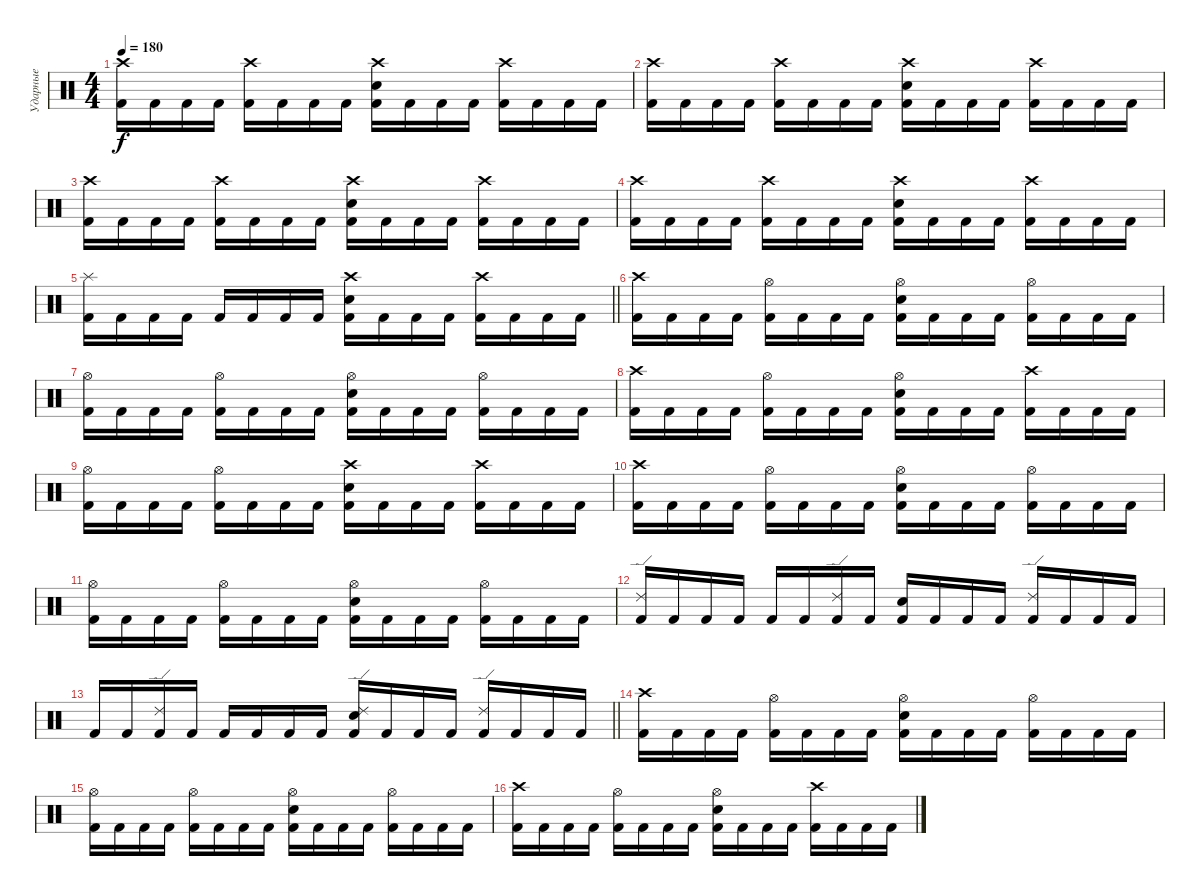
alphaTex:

\track ("Ударные" "Ударные") {instrument percussion}
\staff {score}
\articulation defaults
\ts (4 4)
\tempo 180
\clef neutral
\ks c
("Crash high (hit)" "Kick (hit) 2").16{dy f} "Kick (hit) 2".16 "Kick (hit) 2".16 "Kick (hit) 2".16 ("Crash high (hit)" "Kick (hit) 2").16 "Kick (hit) 2".16 "Kick (hit) 2".16 "Kick (hit) 2".16 ("Crash high (hit)" "Electric Snare (hit)" "Kick (hit) 2").16 "Kick (hit) 2".16 "Kick (hit) 2".16 "Kick (hit) 2".16 ("Crash high (hit)" "Kick (hit) 2").16 "Kick (hit) 2".16 "Kick (hit) 2".16 "Kick (hit) 2".16 |
("Crash high (hit)" "Kick (hit) 2").16 "Kick (hit) 2".16 "Kick (hit) 2".16 "Kick (hit) 2".16 ("Crash high (hit)" "Kick (hit) 2").16 "Kick (hit) 2".16 "Kick (hit) 2".16 "Kick (hit) 2".16 ("Crash high (hit)" "Electric Snare (hit)" "Kick (hit) 2").16 "Kick (hit) 2".16 "Kick (hit) 2".16 "Kick (hit) 2".16 ("Crash high (hit)" "Kick (hit) 2").16 "Kick (hit) 2".16 "Kick (hit) 2".16 "Kick (hit) 2".16 |
("Crash high (hit)" "Kick (hit) 2").16 "Kick (hit) 2".16 "Kick (hit) 2".16 "Kick (hit) 2".16 ("Crash high (hit)" "Kick (hit) 2").16 "Kick (hit) 2".16 "Kick (hit) 2".16 "Kick (hit) 2".16 ("Crash high (hit)" "Electric Snare (hit)" "Kick (hit) 2").16 "Kick (hit) 2".16 "Kick (hit) 2".16 "Kick (hit) 2".16 ("Crash high (hit)" "Kick (hit) 2").16 "Kick (hit) 2".16 "Kick (hit) 2".16 "Kick (hit) 2".16 |
("Crash high (hit)" "Kick (hit) 2").16 "Kick (hit) 2".16 "Kick (hit) 2".16 "Kick (hit) 2".16 ("Crash high (hit)" "Kick (hit) 2").16 "Kick (hit) 2".16 "Kick (hit) 2".16 "Kick (hit) 2".16 ("Crash high (hit)" "Electric Snare (hit)" "Kick (hit) 2").16 "Kick (hit) 2".16 "Kick (hit) 2".16 "Kick (hit) 2".16 ("Crash high (hit)" "Kick (hit) 2").16 "Kick (hit) 2".16 "Kick (hit) 2".16 "Kick (hit) 2".16 |
\barLineRight lightlight
("Splash (hit)" "Kick (hit) 2").16 "Kick (hit) 2".16 "Kick (hit) 2".16 "Kick (hit) 2".16 "Kick (hit) 2".16 "Kick (hit) 2".16 "Kick (hit) 2".16 "Kick (hit) 2".16 ("Crash high (hit)" "Electric Snare (hit)" "Kick (hit) 2").16 "Kick (hit) 2".16 "Kick (hit) 2".16 "Kick (hit) 2".16 ("Crash high (hit)" "Kick (hit) 2").16 "Kick (hit) 2".16 "Kick (hit) 2".16 "Kick (hit) 2".16 |
\section ("" "")
("Crash high (hit)" "Kick (hit) 2").16 "Kick (hit) 2".16 "Kick (hit) 2".16 "Kick (hit) 2".16 ("Hi-Hat (open)" "Kick (hit) 2").16 "Kick (hit) 2".16 "Kick (hit) 2".16 "Kick (hit) 2".16 ("Hi-Hat (open)" "Electric Snare (hit)" "Kick (hit) 2").16 "Kick (hit) 2".16 "Kick (hit) 2".16 "Kick (hit) 2".16 ("Hi-Hat (open)" "Kick (hit) 2").16 "Kick (hit) 2".16 "Kick (hit) 2".16 "Kick (hit) 2".16 |
("Hi-Hat (open)" "Kick (hit) 2").16 "Kick (hit) 2".16 "Kick (hit) 2".16 "Kick (hit) 2".16 ("Hi-Hat (open)" "Kick (hit) 2").16 "Kick (hit) 2".16 "Kick (hit) 2".16 "Kick (hit) 2".16 ("Hi-Hat (open)" "Electric Snare (hit)" "Kick (hit) 2").16 "Kick (hit) 2".16 "Kick (hit) 2".16 "Kick (hit) 2".16 ("Hi-Hat (open)" "Kick (hit) 2").16 "Kick (hit) 2".16 "Kick (hit) 2".16 "Kick (hit) 2".16 |
("Crash high (hit)" "Kick (hit) 2").16 "Kick (hit) 2".16 "Kick (hit) 2".16 "Kick (hit) 2".16 ("Hi-Hat (open)" "Kick (hit) 2").16 "Kick (hit) 2".16 "Kick (hit) 2".16 "Kick (hit) 2".16 ("Hi-Hat (open)" "Electric Snare (hit)" "Kick (hit) 2").16 "Kick (hit) 2".16 "Kick (hit) 2".16 "Kick (hit) 2".16 ("Crash high (hit)" "Kick (hit) 2").16 "Kick (hit) 2".16 "Kick (hit) 2".16 "Kick (hit) 2".16 |
("Hi-Hat (open)" "Kick (hit) 2").16 "Kick (hit) 2".16 "Kick (hit) 2".16 "Kick (hit) 2".16 ("Hi-Hat (open)" "Kick (hit) 2").16 "Kick (hit) 2".16 "Kick (hit) 2".16 "Kick (hit) 2".16 ("Crash high (hit)" "Electric Snare (hit)" "Kick (hit) 2").16 "Kick (hit) 2".16 "Kick (hit) 2".16 "Kick (hit) 2".16 ("Crash high (hit)" "Kick (hit) 2").16 "Kick (hit) 2".16 "Kick (hit) 2".16 "Kick (hit) 2".16 |
("Crash high (hit)" "Kick (hit) 2").16 "Kick (hit) 2".16 "Kick (hit) 2".16 "Kick (hit) 2".16 ("Hi-Hat (open)" "Kick (hit) 2").16 "Kick (hit) 2".16 "Kick (hit) 2".16 "Kick (hit) 2".16 ("Hi-Hat (open)" "Electric Snare (hit)" "Kick (hit) 2").16 "Kick (hit) 2".16 "Kick (hit) 2".16 "Kick (hit) 2".16 ("Hi-Hat (open)" "Kick (hit) 2").16 "Kick (hit) 2".16 "Kick (hit) 2".16 "Kick (hit) 2".16 |
("Hi-Hat (open)" "Kick (hit) 2").16 "Kick (hit) 2".16 "Kick (hit) 2".16 "Kick (hit) 2".16 ("Hi-Hat (open)" "Kick (hit) 2").16 "Kick (hit) 2".16 "Kick (hit) 2".16 "Kick (hit) 2".16 ("Hi-Hat (open)" "Electric Snare (hit)" "Kick (hit) 2").16 "Kick (hit) 2".16 "Kick (hit) 2".16 "Kick (hit) 2".16 ("Hi-Hat (open)" "Kick (hit) 2").16 "Kick (hit) 2".16 "Kick (hit) 2".16 "Kick (hit) 2".16 |
("Ride (edge) 2" "Kick (hit) 2").16 "Kick (hit) 2".16 "Kick (hit) 2".16 "Kick (hit) 2".16 "Kick (hit) 2".16 "Kick (hit) 2".16 ("Ride (edge) 2" "Kick (hit) 2").16 "Kick (hit) 2".16 ("Electric Snare (hit)" "Kick (hit) 2").16 "Kick (hit) 2".16 "Kick (hit) 2".16 "Kick (hit) 2".16 ("Ride (edge) 2" "Kick (hit) 2").16 "Kick (hit) 2".16 "Kick (hit) 2".16 "Kick (hit) 2".16 |
\barLineRight lightlight "Kick (hit) 2".16 "Kick (hit) 2".16
("Ride (edge) 2" "Kick (hit) 2").16 "Kick (hit) 2".16 "Kick (hit) 2".16 "Kick (hit) 2".16 "Kick (hit) 2".16 "Kick (hit) 2".16 ("Ride (edge) 2" "Electric Snare (hit)" "Kick (hit) 2").16 "Kick (hit) 2".16 "Kick (hit) 2".16 "Kick (hit) 2".16 ("Ride (edge) 2" "Kick (hit) 2").16 "Kick (hit) 2".16 "Kick (hit) 2".16 "Kick (hit) 2".16 |
("Crash high (hit)" "Kick (hit) 2").16 "Kick (hit) 2".16 "Kick (hit) 2".16 "Kick (hit) 2".16 ("Hi-Hat (open)" "Kick (hit) 2").16 "Kick (hit) 2".16 "Kick (hit) 2".16 "Kick (hit) 2".16 ("Hi-Hat (open)" "Electric Snare (hit)" "Kick (hit) 2").16 "Kick (hit) 2".16 "Kick (hit) 2".16 "Kick (hit) 2".16 ("Hi-Hat (open)" "Kick (hit) 2").16 "Kick (hit) 2".16 "Kick (hit) 2".16 "Kick (hit) 2".16 |
("Hi-Hat (open)" "Kick (hit) 2").16 "Kick (hit) 2".16 "Kick (hit) 2".16 "Kick (hit) 2".16 ("Hi-Hat (open)" "Kick (hit) 2").16 "Kick (hit) 2".16 "Kick (hit) 2".16 "Kick (hit) 2".16 ("Hi-Hat (open)" "Electric Snare (hit)" "Kick (hit) 2").16 "Kick (hit) 2".16 "Kick (hit) 2".16 "Kick (hit) 2".16 ("Hi-Hat (open)" "Kick (hit) 2").16 "Kick (hit) 2".16 "Kick (hit) 2".16 "Kick (hit) 2".16 |
("Crash high (hit)" "Kick (hit) 2").16 "Kick (hit) 2".16 "Kick (hit) 2".16 "Kick (hit) 2".16 ("Hi-Hat (open)" "Kick (hit) 2").16 "Kick (hit) 2".16 "Kick (hit) 2".16 "Kick (hit) 2".16 ("Hi-Hat (open)" "Electric Snare (hit)" "Kick (hit) 2").16 "Kick (hit) 2".16 "Kick (hit) 2".16 "Kick (hit) 2".16 ("Crash high (hit)" "Kick (hit) 2").16 "Kick (hit) 2".16 "Kick (hit) 2".16 "Kick (hit) 2".16
